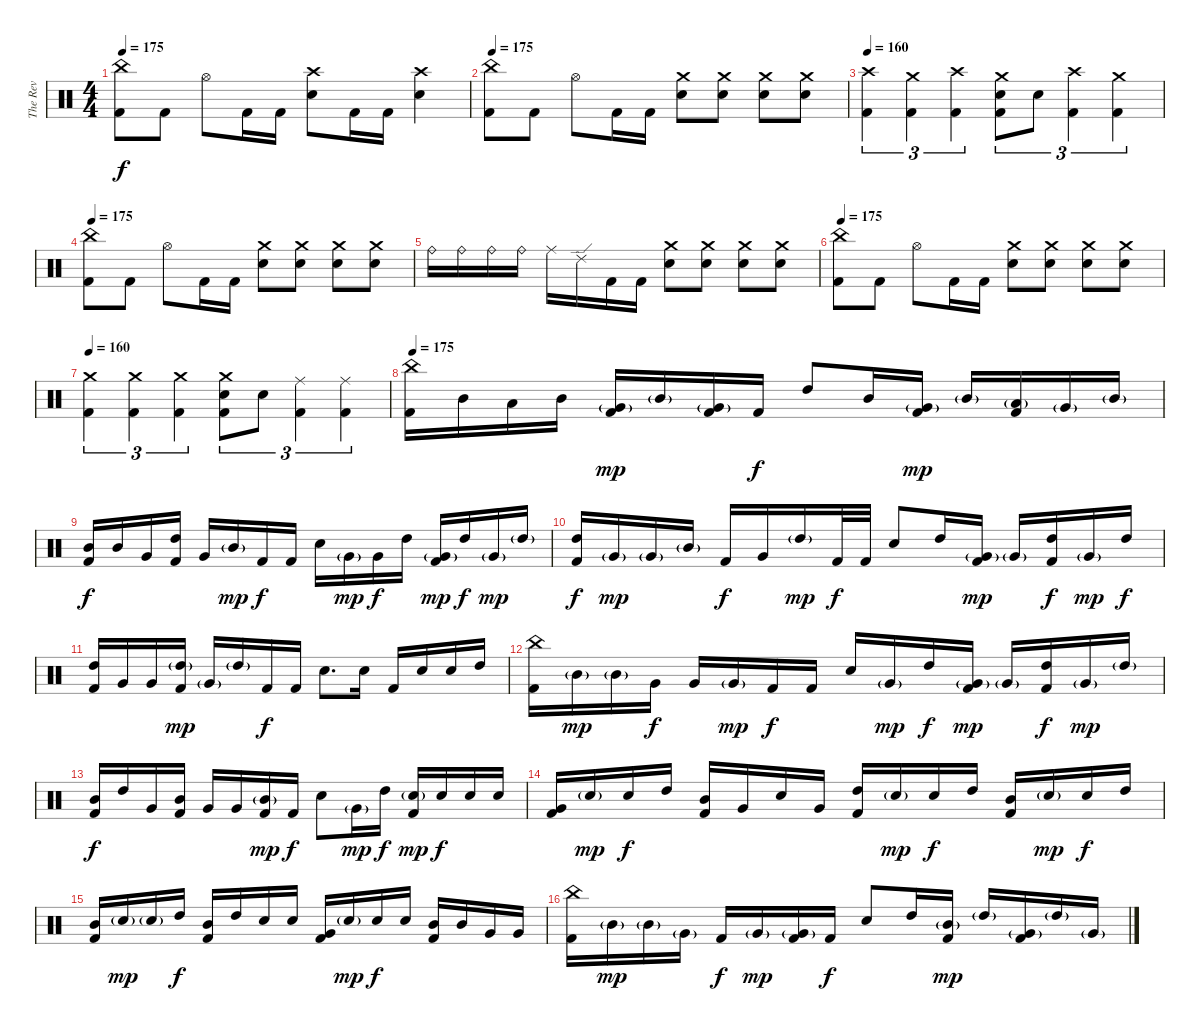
\track ("The Rev" "The Rev") {instrument percussion}
\staff {score}
\articulation defaults
\ts (4 4)
\tempo 175
\clef neutral
\ks c
("China (hit)" "Kick (hit) 2").8{dy f} "Kick (hit) 2".8 "Hi-Hat (open)".8 "Kick (hit) 2".16 "Kick (hit) 2".16 ("Crash high (hit)" "Electric Snare (hit)").8 "Kick (hit) 2".16 "Kick (hit) 2".16 ("Crash high (hit)" "Electric Snare (hit)").4 |
\tempo 175
("China (hit)" "Kick (hit) 2").8 "Kick (hit) 2".8 "Hi-Hat (open)".8 "Kick (hit) 2".16 "Kick (hit) 2".16 ("Crash medium (hit)" "Electric Snare (hit)").8 ("Crash medium (hit)" "Electric Snare (hit)").8 ("Crash medium (hit)" "Electric Snare (hit)").8 ("Crash medium (hit)" "Electric Snare (hit)").8 |
\tempo 160
("Crash high (hit)" "Kick (hit) 2").4{tu (3 2)} ("Crash medium (hit)" "Kick (hit) 2").4{tu (3 2)} ("Crash high (hit)" "Kick (hit) 2").4{tu (3 2)} ("Crash medium (hit)" "Electric Snare (hit)" "Kick (hit) 2").8{tu (3 2)} "Electric Snare (hit)".8{tu (3 2)} ("Crash high (hit)" "Kick (hit) 2").4{tu (3 2)} ("Crash medium (hit)" "Kick (hit) 2").4{tu (3 2)} |
\tempo 175
("China (hit)" "Kick (hit) 2").8 "Kick (hit) 2".8 "Hi-Hat (open)".8 "Kick (hit) 2".16 "Kick (hit) 2".16 ("Crash medium (hit)" "Electric Snare (hit)").8 ("Crash medium (hit)" "Electric Snare (hit)").8 ("Crash medium (hit)" "Electric Snare (hit)").8 ("Crash medium (hit)" "Electric Snare (hit)").8 |
"Ride (bell)".16 "Ride (bell)".16 "Ride (bell)".16 "Ride (bell)".16 "Ride (middle)".16 "Ride (edge) 2".16 "Kick (hit) 2".16 "Kick (hit) 2".16 ("Crash medium (hit)" "Electric Snare (hit)").8 ("Crash medium (hit)" "Electric Snare (hit)").8 ("Crash medium (hit)" "Electric Snare (hit)").8 ("Crash medium (hit)" "Electric Snare (hit)").8 |
\tempo 175
("China (hit)" "Kick (hit) 2").8 "Kick (hit) 2".8 "Hi-Hat (open)".8 "Kick (hit) 2".16 "Kick (hit) 2".16 ("Crash medium (hit)" "Electric Snare (hit)").8 ("Crash medium (hit)" "Electric Snare (hit)").8 ("Crash medium (hit)" "Electric Snare (hit)").8 ("Crash medium (hit)" "Electric Snare (hit)").8 |
\tempo 160
("Crash medium (hit)" "Kick (hit) 2").4{tu (3 2)} ("Crash medium (hit)" "Kick (hit) 2").4{tu (3 2)} ("Crash medium (hit)" "Kick (hit) 2").4{tu (3 2)} ("Crash medium (hit)" "Electric Snare (hit)" "Kick (hit) 2").8{tu (3 2)} "Electric Snare (hit)".8{tu (3 2)} ("Ride (middle)" "Kick (hit) 2").4{tu (3 2)} ("Ride (middle)" "Kick (hit) 2").4{tu (3 2)} |
\tempo 175
("China (hit)" "Kick (hit) 2").16 "Mid Tom (hit)".16 "Low Tom (hit)".16 "Mid Tom (hit)".16 ("Very Low Tom (hit)"{g} "Kick (hit) 2").16{dy mp} "Mid Tom (hit)"{g}.16 ("Very Low Tom (hit)"{g} "Kick (hit) 2").16 "Kick (hit) 2".16{dy f} "High Tom (hit)".8 "Mid Tom (hit)".16 ("Very Low Tom (hit)"{g} "Kick (hit) 2").16{dy mp} "Mid Tom (hit)"{g}.16 ("Low Tom (hit)"{g} "Kick (hit) 2").16 "Very Low Tom (hit)"{g}.16 "Mid Tom (hit)"{g}.16 |
("Mid Tom (hit)" "Kick (hit) 2").16{dy f} "Mid Tom (hit)".16 "Very Low Tom (hit)".16 ("High Tom (hit)" "Kick (hit) 2").16 "Very Low Tom (hit)".16 "Mid Tom (hit)"{g}.16{dy mp} "Kick (hit) 2".16{dy f} "Kick (hit) 2".16 "Electric Snare (hit)".16 "Very Low Tom (hit)"{g}.16{dy mp} "Very Low Tom (hit)".16{dy f} "High Tom (hit)".16 ("Very Low Tom (hit)"{g} "Kick (hit) 2").16{dy mp} "High Tom (hit)".16{dy f} "Very Low Tom (hit)"{g}.16{dy mp} "High Tom (hit)"{g}.16 |
("High Tom (hit)" "Kick (hit) 2").16{dy f} "Very Low Tom (hit)"{g}.16{dy mp} "Very Low Tom (hit)"{g}.16 "Mid Tom (hit)"{g}.16 "Kick (hit) 2".16{dy f} "Very Low Tom (hit)".16 "High Tom (hit)"{g}.16{dy mp} "Kick (hit) 2".32{dy f} "Kick (hit) 2".32 "Electric Snare (hit)".8 "High Tom (hit)".16 ("Very Low Tom (hit)"{g} "Kick (hit) 2").16{dy mp} "Very Low Tom (hit)"{g}.16 ("High Tom (hit)" "Kick (hit) 2").16{dy f} "Very Low Tom (hit)"{g}.16{dy mp} "High Tom (hit)".16{dy f} |
("High Tom (hit)" "Kick (hit) 2").16 "Very Low Tom (hit)".16 "Very Low Tom (hit)".16 ("High Tom (hit)"{g} "Kick (hit) 2").16{dy mp} "Very Low Tom (hit)"{g}.16 "High Tom (hit)"{g}.16 "Kick (hit) 2".16{dy f} "Kick (hit) 2".16 "Electric Snare (hit)".8{d} "Electric Snare (hit)".16 "Kick (hit) 2".16 "Electric Snare (hit)".16 "Electric Snare (hit)".16 "High Tom (hit)".16 |
("China (hit)" "Kick (hit) 2").16 "Mid Tom (hit)"{g}.16{dy mp} "Mid Tom (hit)"{g}.16 "Very Low Tom (hit)".16{dy f} "Very Low Tom (hit)".16 "Very Low Tom (hit)"{g}.16{dy mp} "Kick (hit) 2".16{dy f} "Kick (hit) 2".16 "Electric Snare (hit)".16 "Very Low Tom (hit)"{g}.16{dy mp} "High Tom (hit)".16{dy f} ("Very Low Tom (hit)"{g} "Kick (hit) 2").16{dy mp} "Very Low Tom (hit)"{g}.16 ("High Tom (hit)" "Kick (hit) 2").16{dy f} "Very Low Tom (hit)"{g}.16{dy mp} "High Tom (hit)"{g}.16 |
("Mid Tom (hit)" "Kick (hit) 2").16{dy f} "High Tom (hit)".16 "Very Low Tom (hit)".16 ("Mid Tom (hit)" "Kick (hit) 2").16 "Very Low Tom (hit)".16 "Very Low Tom (hit)".16 ("Mid Tom (hit)"{g} "Kick (hit) 2").16{dy mp} "Kick (hit) 2".16{dy f} "Electric Snare (hit)".8 "Very Low Tom (hit)"{g}.16{dy mp} "High Tom (hit)".16{dy f} ("Electric Snare (hit)"{g} "Kick (hit) 2").16{dy mp} "Electric Snare (hit)".16{dy f} "Electric Snare (hit)".16 "Electric Snare (hit)".16 |
("Very Low Tom (hit)" "Kick (hit) 2").16 "Electric Snare (hit)"{g}.16{dy mp} "Electric Snare (hit)".16{dy f} "High Tom (hit)".16 ("Mid Tom (hit)" "Kick (hit) 2").16 "Very Low Tom (hit)".16 "Electric Snare (hit)".16 "Very Low Tom (hit)".16 ("High Tom (hit)" "Kick (hit) 2").16 "Electric Snare (hit)"{g}.16{dy mp} "Electric Snare (hit)".16{dy f} "High Tom (hit)".16 ("Mid Tom (hit)" "Kick (hit) 2").16 "Electric Snare (hit)"{g}.16{dy mp} "Electric Snare (hit)".16{dy f} "High Tom (hit)".16 |
("Mid Tom (hit)" "Kick (hit) 2").16 "Electric Snare (hit)"{g}.16{dy mp} "Electric Snare (hit)"{g}.16 "High Tom (hit)".16{dy f} ("Mid Tom (hit)" "Kick (hit) 2").16 "High Tom (hit)".16 "Electric Snare (hit)".16 "Electric Snare (hit)".16 ("Very Low Tom (hit)" "Kick (hit) 2").16 "Electric Snare (hit)"{g}.16{dy mp} "Electric Snare (hit)".16{dy f} "Electric Snare (hit)".16 ("Mid Tom (hit)" "Kick (hit) 2").16 "Mid Tom (hit)".16 "Very Low Tom (hit)".16 "Very Low Tom (hit)".16 |
("China (hit)" "Kick (hit) 2").16 "Mid Tom (hit)"{g}.16{dy mp} "Mid Tom (hit)"{g}.16 "Very Low Tom (hit)"{g}.16 "Kick (hit) 2".16{dy f} "Very Low Tom (hit)"{g}.16{dy mp} ("Very Low Tom (hit)"{g} "Kick (hit) 2").16 "Kick (hit) 2".16{dy f} "Electric Snare (hit)".8 "High Tom (hit)".16 ("Mid Tom (hit)"{g} "Kick (hit) 2").16{dy mp} "High Tom (hit)"{g}.16 ("Very Low Tom (hit)"{g} "Kick (hit) 2").16 "High Tom (hit)"{g}.16 "Very Low Tom (hit)"{g}.16
